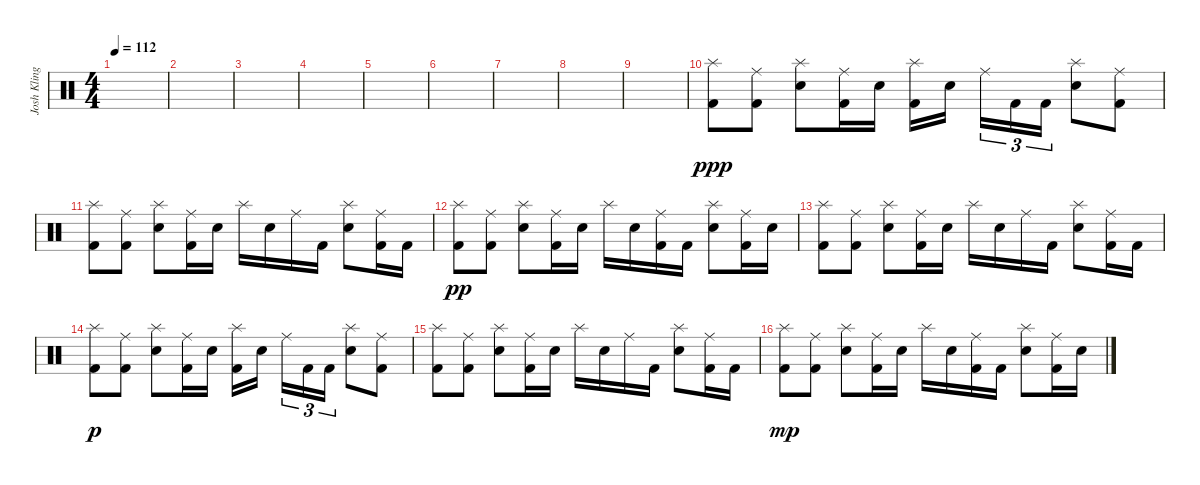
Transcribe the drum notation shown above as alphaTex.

\track ("Josh Klinghoffer " "Josh Kling") {instrument percussion}
\staff {score}
\articulation defaults
\ts (4 4)
\tempo 112
\clef neutral
\ks c
|
|
|
|
|
|
|
|
|
("Splash (hit)" "Kick (hit) 2").8{dy ppp} ("Ride (middle)" "Kick (hit) 2").8 ("Splash (hit)" "Electric Snare (hit)").8 ("Ride (middle)" "Kick (hit) 2").16 "Electric Snare (hit)".16 ("Splash (hit)" "Kick (hit) 2").16 "Electric Snare (hit)".16{beam splitsecondary} "Ride (middle)".16{tu (3 2)} "Kick (hit) 2".16{tu (3 2)} "Kick (hit) 2".16{tu (3 2)} ("Splash (hit)" "Electric Snare (hit)").8 ("Ride (middle)" "Kick (hit) 2").8 |
("Splash (hit)" "Kick (hit) 2").8 ("Ride (middle)" "Kick (hit) 2").8 ("Splash (hit)" "Electric Snare (hit)").8 ("Ride (middle)" "Kick (hit) 2").16 "Electric Snare (hit)".16 "Splash (hit)".16 "Electric Snare (hit)".16 "Ride (middle)".16 "Kick (hit) 2".16 ("Splash (hit)" "Electric Snare (hit)").8 ("Ride (middle)" "Kick (hit) 2").16 "Kick (hit) 2".16 |
("Splash (hit)" "Kick (hit) 2").8{dy pp} ("Ride (middle)" "Kick (hit) 2").8 ("Splash (hit)" "Electric Snare (hit)").8 ("Ride (middle)" "Kick (hit) 2").16 "Electric Snare (hit)".16 "Splash (hit)".16 "Electric Snare (hit)".16 ("Ride (middle)" "Kick (hit) 2").16 "Kick (hit) 2".16 ("Splash (hit)" "Electric Snare (hit)").8 ("Ride (middle)" "Kick (hit) 2").16 "Electric Snare (hit)".16 |
("Splash (hit)" "Kick (hit) 2").8 ("Ride (middle)" "Kick (hit) 2").8 ("Splash (hit)" "Electric Snare (hit)").8 ("Ride (middle)" "Kick (hit) 2").16 "Electric Snare (hit)".16 "Splash (hit)".16 "Electric Snare (hit)".16 "Ride (middle)".16 "Kick (hit) 2".16 ("Splash (hit)" "Electric Snare (hit)").8 ("Ride (middle)" "Kick (hit) 2").16 "Kick (hit) 2".16 |
("Splash (hit)" "Kick (hit) 2").8{dy p} ("Ride (middle)" "Kick (hit) 2").8 ("Splash (hit)" "Electric Snare (hit)").8 ("Ride (middle)" "Kick (hit) 2").16 "Electric Snare (hit)".16 ("Splash (hit)" "Kick (hit) 2").16 "Electric Snare (hit)".16{beam splitsecondary} "Ride (middle)".16{tu (3 2)} "Kick (hit) 2".16{tu (3 2)} "Kick (hit) 2".16{tu (3 2)} ("Splash (hit)" "Electric Snare (hit)").8 ("Ride (middle)" "Kick (hit) 2").8 |
("Splash (hit)" "Kick (hit) 2").8 ("Ride (middle)" "Kick (hit) 2").8 ("Splash (hit)" "Electric Snare (hit)").8 ("Ride (middle)" "Kick (hit) 2").16 "Electric Snare (hit)".16 "Splash (hit)".16 "Electric Snare (hit)".16 "Ride (middle)".16 "Kick (hit) 2".16 ("Splash (hit)" "Electric Snare (hit)").8 ("Ride (middle)" "Kick (hit) 2").16 "Kick (hit) 2".16 |
("Splash (hit)" "Kick (hit) 2").8{dy mp} ("Ride (middle)" "Kick (hit) 2").8 ("Splash (hit)" "Electric Snare (hit)").8 ("Ride (middle)" "Kick (hit) 2").16 "Electric Snare (hit)".16 "Splash (hit)".16 "Electric Snare (hit)".16 ("Ride (middle)" "Kick (hit) 2").16 "Kick (hit) 2".16 ("Splash (hit)" "Electric Snare (hit)").8 ("Ride (middle)" "Kick (hit) 2").16 "Electric Snare (hit)".16
